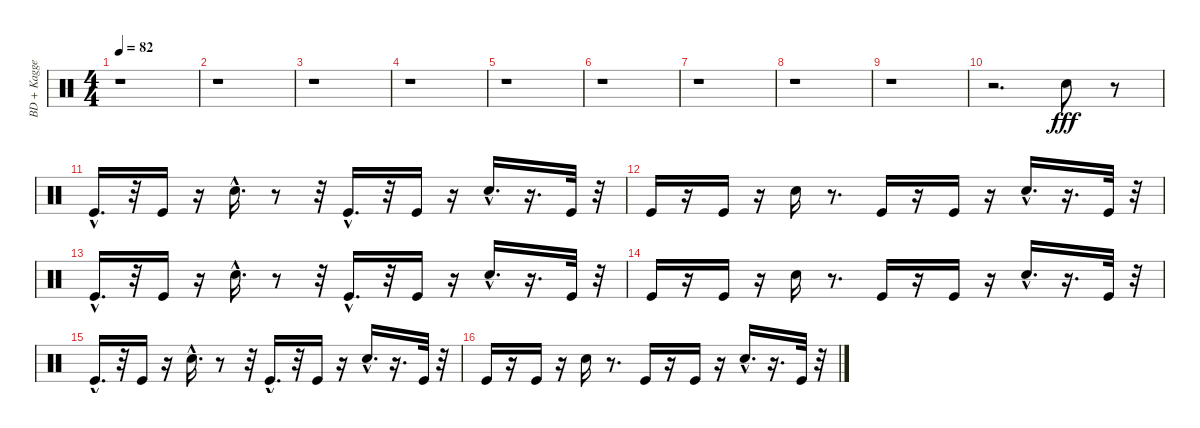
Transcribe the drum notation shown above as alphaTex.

\track ("BD + Kagge" "BD + Kagge") {instrument percussion}
\staff {score}
\articulation defaults
\ts (4 4)
\tempo 82
\clef neutral
\ks c
r.1{dy fff} |
r.1 |
r.1 |
r.1 |
r.1 |
r.1 |
r.1 |
r.1 |
r.1 |
r.2{d} "Electric Snare (hit)".8 r.8 |
"Kick (hit)"{hac}.16{d} r.32 "Kick (hit)".16 r.16 "Electric Snare (hit)"{hac}.16{d} r.8 r.32 "Kick (hit)"{hac}.16{d} r.32 "Kick (hit)".16 r.16 "Electric Snare (hit)"{hac}.16{d} r.16{d} "Kick (hit)".32 r.32 |
"Kick (hit)".16 r.16 "Kick (hit)".16 r.16 "Electric Snare (hit)".16 r.8{d} "Kick (hit)".16 r.16 "Kick (hit)".16 r.16 "Electric Snare (hit)"{hac}.16{d} r.16{d} "Kick (hit)".32 r.32 |
"Kick (hit)"{hac}.16{d} r.32 "Kick (hit)".16 r.16 "Electric Snare (hit)"{hac}.16{d} r.8 r.32 "Kick (hit)"{hac}.16{d} r.32 "Kick (hit)".16 r.16 "Electric Snare (hit)"{hac}.16{d} r.16{d} "Kick (hit)".32 r.32 |
"Kick (hit)".16 r.16 "Kick (hit)".16 r.16 "Electric Snare (hit)".16 r.8{d} "Kick (hit)".16 r.16 "Kick (hit)".16 r.16 "Electric Snare (hit)"{hac}.16{d} r.16{d} "Kick (hit)".32 r.32 |
"Kick (hit)"{hac}.16{d} r.32 "Kick (hit)".16 r.16 "Electric Snare (hit)"{hac}.16{d} r.8 r.32 "Kick (hit)"{hac}.16{d} r.32 "Kick (hit)".16 r.16 "Electric Snare (hit)"{hac}.16{d} r.16{d} "Kick (hit)".32 r.32 |
"Kick (hit)".16 r.16 "Kick (hit)".16 r.16 "Electric Snare (hit)".16 r.8{d} "Kick (hit)".16 r.16 "Kick (hit)".16 r.16 "Electric Snare (hit)"{hac}.16{d} r.16{d} "Kick (hit)".32 r.32
